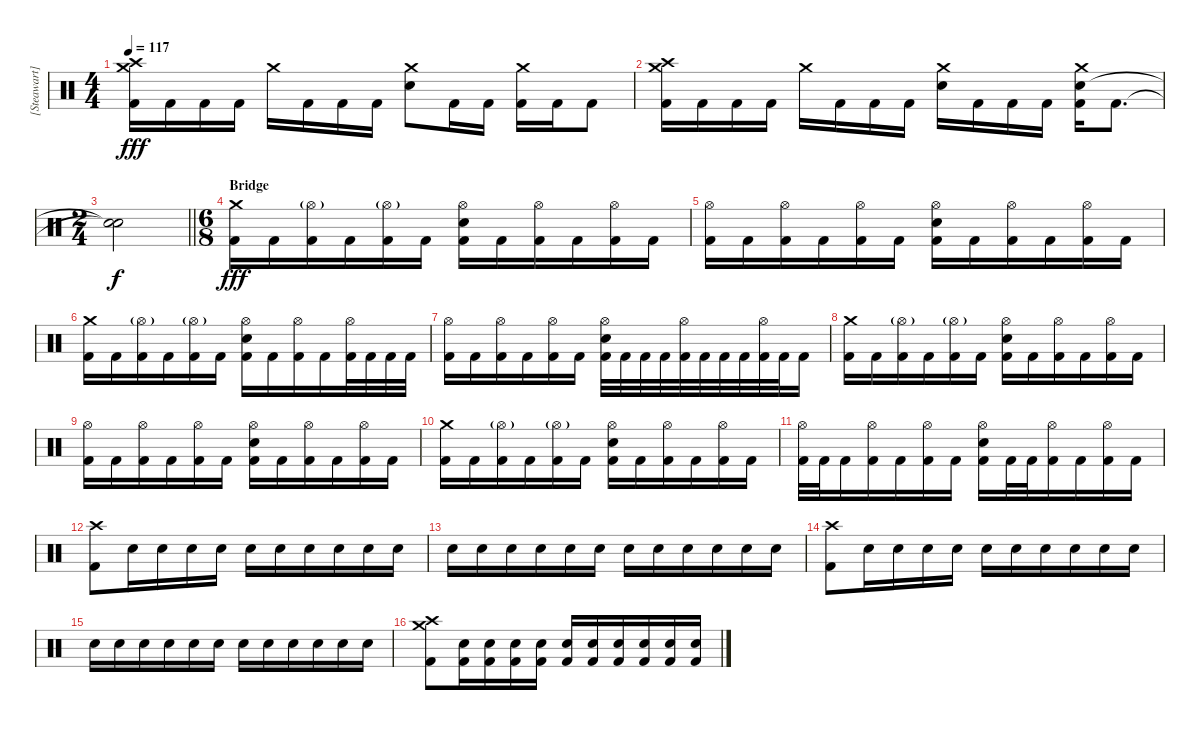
\track ("[Steawart] Drums" "[Steawart]") {instrument percussion}
\staff {score}
\articulation defaults
\ts (4 4)
\tempo 117
\clef neutral
\ks c
("Crash medium (hit)" "Crash high (hit)" "Kick (hit) 2").16{dy fff} "Kick (hit) 2".16 "Kick (hit) 2".16 "Kick (hit) 2".16 "Crash medium (hit)".16 "Kick (hit) 2".16 "Kick (hit) 2".16 "Kick (hit) 2".16 ("Crash medium (hit)" "Electric Snare (hit)").8 "Kick (hit) 2".16 "Kick (hit) 2".16 ("Crash medium (hit)" "Kick (hit) 2").16 "Kick (hit) 2".16 "Kick (hit) 2".8 |
("Crash medium (hit)" "Crash high (hit)" "Kick (hit) 2").16 "Kick (hit) 2".16 "Kick (hit) 2".16 "Kick (hit) 2".16 "Crash medium (hit)".16 "Kick (hit) 2".16 "Kick (hit) 2".16 "Kick (hit) 2".16 ("Crash medium (hit)" "Electric Snare (hit)").16 "Kick (hit) 2".16 "Kick (hit) 2".16 "Kick (hit) 2".16 ("Crash medium (hit)" "Electric Snare (hit)" "Kick (hit) 2").16 "Kick (hit) 2".8{d} |
\ts (2 4)
\barLineRight lightlight
("Snare (hit)"{t} "Snare (hit)"{t}).2{dy f} |
\ts (6 8)
\section ("" "Bridge")
("Crash medium (hit)" "Kick (hit) 2").16{dy fff} "Kick (hit) 2".16 ("Hi-Hat (open)"{g} "Kick (hit) 2").16 "Kick (hit) 2".16 ("Hi-Hat (open)"{g} "Kick (hit) 2").16 "Kick (hit) 2".16 ("Hi-Hat (open)" "Electric Snare (hit)" "Kick (hit) 2").16 "Kick (hit) 2".16 ("Hi-Hat (open)" "Kick (hit) 2").16 "Kick (hit) 2".16 ("Hi-Hat (open)" "Kick (hit) 2").16 "Kick (hit) 2".16 |
("Hi-Hat (open)" "Kick (hit) 2").16 "Kick (hit) 2".16 ("Hi-Hat (open)" "Kick (hit) 2").16 "Kick (hit) 2".16 ("Hi-Hat (open)" "Kick (hit) 2").16 "Kick (hit) 2".16 ("Hi-Hat (open)" "Electric Snare (hit)" "Kick (hit) 2").16 "Kick (hit) 2".16 ("Hi-Hat (open)" "Kick (hit) 2").16 "Kick (hit) 2".16 ("Hi-Hat (open)" "Kick (hit) 2").16 "Kick (hit) 2".16 |
("Crash medium (hit)" "Kick (hit) 2").16 "Kick (hit) 2".16 ("Hi-Hat (open)"{g} "Kick (hit) 2").16 "Kick (hit) 2".16 ("Hi-Hat (open)"{g} "Kick (hit) 2").16 "Kick (hit) 2".16 ("Hi-Hat (open)" "Electric Snare (hit)" "Kick (hit) 2").16 "Kick (hit) 2".16 ("Hi-Hat (open)" "Kick (hit) 2").16 "Kick (hit) 2".16 ("Hi-Hat (open)" "Kick (hit) 2").32 "Kick (hit) 2".32 "Kick (hit) 2".32 "Kick (hit) 2".32 |
("Hi-Hat (open)" "Kick (hit) 2").16 "Kick (hit) 2".16 ("Hi-Hat (open)" "Kick (hit) 2").16 "Kick (hit) 2".16 ("Hi-Hat (open)" "Kick (hit) 2").16 "Kick (hit) 2".16 ("Hi-Hat (open)" "Electric Snare (hit)" "Kick (hit) 2").32 "Kick (hit) 2".32 "Kick (hit) 2".32 "Kick (hit) 2".32 ("Hi-Hat (open)" "Kick (hit) 2").32 "Kick (hit) 2".32 "Kick (hit) 2".32 "Kick (hit) 2".32 ("Hi-Hat (open)" "Kick (hit) 2").32 "Kick (hit) 2".32 "Kick (hit) 2".16 |
("Crash medium (hit)" "Kick (hit) 2").16 "Kick (hit) 2".16 ("Hi-Hat (open)"{g} "Kick (hit) 2").16 "Kick (hit) 2".16 ("Hi-Hat (open)"{g} "Kick (hit) 2").16 "Kick (hit) 2".16 ("Hi-Hat (open)" "Electric Snare (hit)" "Kick (hit) 2").16 "Kick (hit) 2".16 ("Hi-Hat (open)" "Kick (hit) 2").16 "Kick (hit) 2".16 ("Hi-Hat (open)" "Kick (hit) 2").16 "Kick (hit) 2".16 |
("Hi-Hat (open)" "Kick (hit) 2").16 "Kick (hit) 2".16 ("Hi-Hat (open)" "Kick (hit) 2").16 "Kick (hit) 2".16 ("Hi-Hat (open)" "Kick (hit) 2").16 "Kick (hit) 2".16 ("Hi-Hat (open)" "Electric Snare (hit)" "Kick (hit) 2").16 "Kick (hit) 2".16 ("Hi-Hat (open)" "Kick (hit) 2").16 "Kick (hit) 2".16 ("Hi-Hat (open)" "Kick (hit) 2").16 "Kick (hit) 2".16 |
("Crash medium (hit)" "Kick (hit) 2").16 "Kick (hit) 2".16 ("Hi-Hat (open)"{g} "Kick (hit) 2").16 "Kick (hit) 2".16 ("Hi-Hat (open)"{g} "Kick (hit) 2").16 "Kick (hit) 2".16 ("Hi-Hat (open)" "Electric Snare (hit)" "Kick (hit) 2").16 "Kick (hit) 2".16 ("Hi-Hat (open)" "Kick (hit) 2").16 "Kick (hit) 2".16 ("Hi-Hat (open)" "Kick (hit) 2").16 "Kick (hit) 2".16 |
("Hi-Hat (open)" "Kick (hit) 2").32 "Kick (hit) 2".32 "Kick (hit) 2".16 ("Hi-Hat (open)" "Kick (hit) 2").16 "Kick (hit) 2".16 ("Hi-Hat (open)" "Kick (hit) 2").16 "Kick (hit) 2".16 ("Hi-Hat (open)" "Electric Snare (hit)" "Kick (hit) 2").16 "Kick (hit) 2".32 "Kick (hit) 2".32 ("Hi-Hat (open)" "Kick (hit) 2").16 "Kick (hit) 2".16 ("Hi-Hat (open)" "Kick (hit) 2").16 "Kick (hit) 2".16 |
("Crash high (hit)" "Kick (hit) 2").8 "Electric Snare (hit)".16 "Electric Snare (hit)".16 "Electric Snare (hit)".16 "Electric Snare (hit)".16 "Electric Snare (hit)".16 "Electric Snare (hit)".16 "Electric Snare (hit)".16 "Electric Snare (hit)".16 "Electric Snare (hit)".16 "Electric Snare (hit)".16 |
"Electric Snare (hit)".16 "Electric Snare (hit)".16 "Electric Snare (hit)".16 "Electric Snare (hit)".16 "Electric Snare (hit)".16 "Electric Snare (hit)".16 "Electric Snare (hit)".16 "Electric Snare (hit)".16 "Electric Snare (hit)".16 "Electric Snare (hit)".16 "Electric Snare (hit)".16 "Electric Snare (hit)".16 |
("Crash high (hit)" "Kick (hit) 2").8 "Electric Snare (hit)".16 "Electric Snare (hit)".16 "Electric Snare (hit)".16 "Electric Snare (hit)".16 "Electric Snare (hit)".16 "Electric Snare (hit)".16 "Electric Snare (hit)".16 "Electric Snare (hit)".16 "Electric Snare (hit)".16 "Electric Snare (hit)".16 |
"Electric Snare (hit)".16 "Electric Snare (hit)".16 "Electric Snare (hit)".16 "Electric Snare (hit)".16 "Electric Snare (hit)".16 "Electric Snare (hit)".16 "Electric Snare (hit)".16 "Electric Snare (hit)".16 "Electric Snare (hit)".16 "Electric Snare (hit)".16 "Electric Snare (hit)".16 "Electric Snare (hit)".16 |
("Crash high (hit)" "Crash medium (hit)" "Kick (hit) 2").8 ("Electric Snare (hit)" "Kick (hit) 2").16 ("Electric Snare (hit)" "Kick (hit) 2").16 ("Electric Snare (hit)" "Kick (hit) 2").16 ("Electric Snare (hit)" "Kick (hit) 2").16 ("Electric Snare (hit)" "Kick (hit) 2").16 ("Electric Snare (hit)" "Kick (hit) 2").16 ("Electric Snare (hit)" "Kick (hit) 2").16 ("Electric Snare (hit)" "Kick (hit) 2").16 ("Electric Snare (hit)" "Kick (hit) 2").16 ("Electric Snare (hit)" "Kick (hit) 2").16
